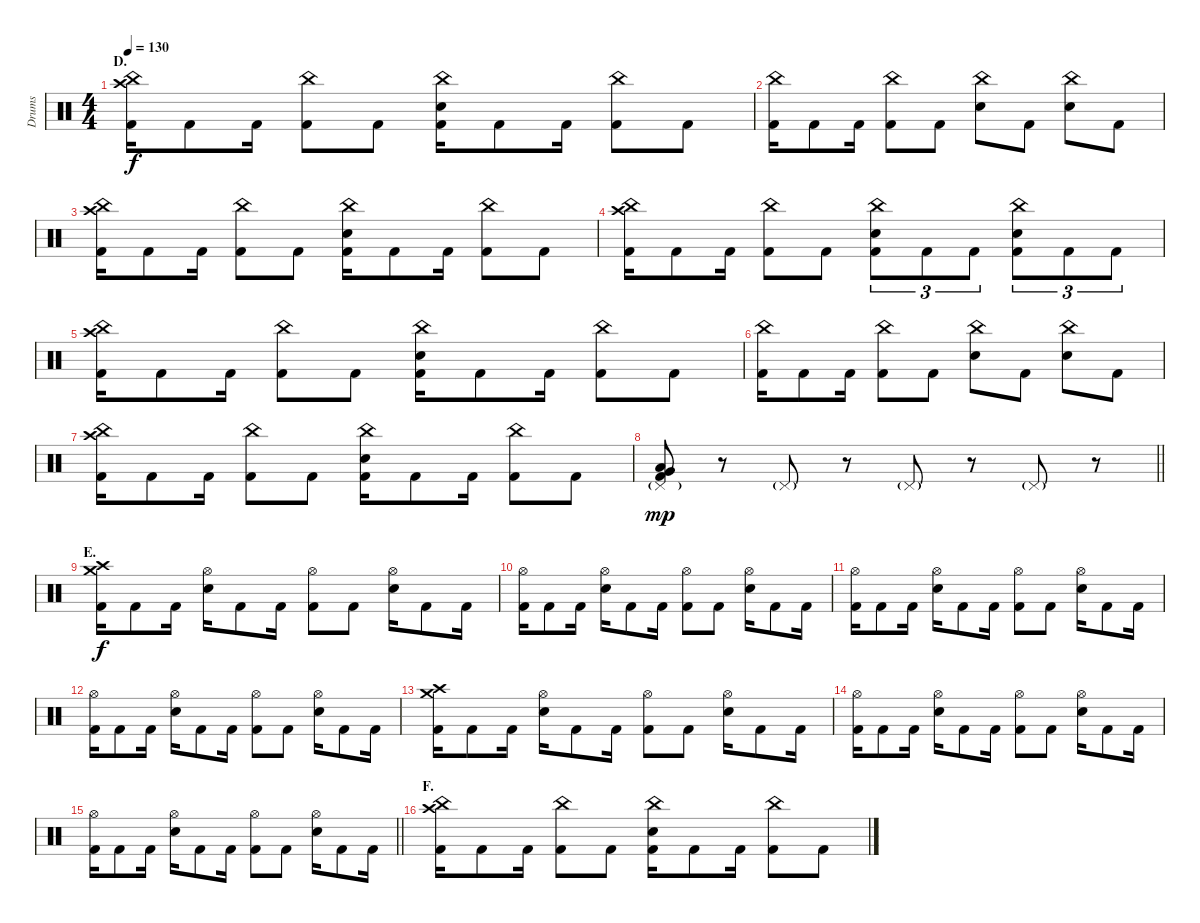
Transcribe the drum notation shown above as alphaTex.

\track ("Drums" "Drums") {instrument percussion}
\staff {score}
\articulation defaults
\ts (4 4)
\section ("" "D.")
\tempo 130
\clef neutral
\ks c
("China (hit)" "Crash high (hit)" "Kick (hit) 2").16{dy f} "Kick (hit) 2".8 "Kick (hit) 2".16 ("China (hit)" "Kick (hit) 2").8 "Kick (hit) 2".8 ("China (hit)" "Electric Snare (hit)" "Kick (hit) 2").16 "Kick (hit) 2".8 "Kick (hit) 2".16 ("China (hit)" "Kick (hit) 2").8 "Kick (hit) 2".8 |
("China (hit)" "Kick (hit) 2").16 "Kick (hit) 2".8 "Kick (hit) 2".16 ("China (hit)" "Kick (hit) 2").8 "Kick (hit) 2".8 ("China (hit)" "Electric Snare (hit)").8 "Kick (hit) 2".8 ("China (hit)" "Electric Snare (hit)").8 "Kick (hit) 2".8 |
("China (hit)" "Crash high (hit)" "Kick (hit) 2").16 "Kick (hit) 2".8 "Kick (hit) 2".16 ("China (hit)" "Kick (hit) 2").8 "Kick (hit) 2".8 ("China (hit)" "Electric Snare (hit)" "Kick (hit) 2").16 "Kick (hit) 2".8 "Kick (hit) 2".16 ("China (hit)" "Kick (hit) 2").8 "Kick (hit) 2".8 |
("China (hit)" "Crash high (hit)" "Kick (hit) 2").16 "Kick (hit) 2".8 "Kick (hit) 2".16 ("China (hit)" "Kick (hit) 2").8 "Kick (hit) 2".8 ("China (hit)" "Electric Snare (hit)" "Kick (hit) 2").8{tu (3 2)} "Kick (hit) 2".8{tu (3 2)} "Kick (hit) 2".8{tu (3 2)} ("China (hit)" "Electric Snare (hit)" "Kick (hit) 2").8{tu (3 2)} "Kick (hit) 2".8{tu (3 2)} "Kick (hit) 2".8{tu (3 2)} |
("China (hit)" "Crash high (hit)" "Kick (hit) 2").16 "Kick (hit) 2".8 "Kick (hit) 2".16 ("China (hit)" "Kick (hit) 2").8 "Kick (hit) 2".8 ("China (hit)" "Electric Snare (hit)" "Kick (hit) 2").16 "Kick (hit) 2".8 "Kick (hit) 2".16 ("China (hit)" "Kick (hit) 2").8 "Kick (hit) 2".8 |
("China (hit)" "Kick (hit) 2").16 "Kick (hit) 2".8 "Kick (hit) 2".16 ("China (hit)" "Kick (hit) 2").8 "Kick (hit) 2".8 ("China (hit)" "Electric Snare (hit)").8 "Kick (hit) 2".8 ("China (hit)" "Electric Snare (hit)").8 "Kick (hit) 2".8 |
("China (hit)" "Crash high (hit)" "Kick (hit) 2").16 "Kick (hit) 2".8 "Kick (hit) 2".16 ("China (hit)" "Kick (hit) 2").8 "Kick (hit) 2".8 ("China (hit)" "Electric Snare (hit)" "Kick (hit) 2").16 "Kick (hit) 2".8 "Kick (hit) 2".16 ("China (hit)" "Kick (hit) 2").8 "Kick (hit) 2".8 |
\barLineRight lightlight
("Pedal Hi-Hat (hit)"{g} "Very Low Tom (hit)" "Low Floor Tom (hit)" "Kick (hit) 2").8{dy mp} r.8 "Pedal Hi-Hat (hit)"{g}.8 r.8 "Pedal Hi-Hat (hit)"{g}.8 r.8 "Pedal Hi-Hat (hit)"{g}.8 r.8 |
\section ("" "E.")
("Crash medium (hit)" "Crash high (hit)" "Kick (hit) 2").16{dy f} "Kick (hit) 2".8 "Kick (hit) 2".16 ("Hi-Hat (open)" "Electric Snare (hit)").16 "Kick (hit) 2".8 "Kick (hit) 2".16 ("Hi-Hat (open)" "Kick (hit) 2").8 "Kick (hit) 2".8 ("Hi-Hat (open)" "Electric Snare (hit)").16 "Kick (hit) 2".8 "Kick (hit) 2".16 |
("Hi-Hat (open)" "Kick (hit) 2").16 "Kick (hit) 2".8 "Kick (hit) 2".16 ("Hi-Hat (open)" "Electric Snare (hit)").16 "Kick (hit) 2".8 "Kick (hit) 2".16 ("Hi-Hat (open)" "Kick (hit) 2").8 "Kick (hit) 2".8 ("Hi-Hat (open)" "Electric Snare (hit)").16 "Kick (hit) 2".8 "Kick (hit) 2".16 |
("Hi-Hat (open)" "Kick (hit) 2").16 "Kick (hit) 2".8 "Kick (hit) 2".16 ("Hi-Hat (open)" "Electric Snare (hit)").16 "Kick (hit) 2".8 "Kick (hit) 2".16 ("Hi-Hat (open)" "Kick (hit) 2").8 "Kick (hit) 2".8 ("Hi-Hat (open)" "Electric Snare (hit)").16 "Kick (hit) 2".8 "Kick (hit) 2".16 |
("Hi-Hat (open)" "Kick (hit) 2").16 "Kick (hit) 2".8 "Kick (hit) 2".16 ("Hi-Hat (open)" "Electric Snare (hit)").16 "Kick (hit) 2".8 "Kick (hit) 2".16 ("Hi-Hat (open)" "Kick (hit) 2").8 "Kick (hit) 2".8 ("Hi-Hat (open)" "Electric Snare (hit)").16 "Kick (hit) 2".8 "Kick (hit) 2".16 |
("Crash medium (hit)" "Crash high (hit)" "Kick (hit) 2").16 "Kick (hit) 2".8 "Kick (hit) 2".16 ("Hi-Hat (open)" "Electric Snare (hit)").16 "Kick (hit) 2".8 "Kick (hit) 2".16 ("Hi-Hat (open)" "Kick (hit) 2").8 "Kick (hit) 2".8 ("Hi-Hat (open)" "Electric Snare (hit)").16 "Kick (hit) 2".8 "Kick (hit) 2".16 |
("Hi-Hat (open)" "Kick (hit) 2").16 "Kick (hit) 2".8 "Kick (hit) 2".16 ("Hi-Hat (open)" "Electric Snare (hit)").16 "Kick (hit) 2".8 "Kick (hit) 2".16 ("Hi-Hat (open)" "Kick (hit) 2").8 "Kick (hit) 2".8 ("Hi-Hat (open)" "Electric Snare (hit)").16 "Kick (hit) 2".8 "Kick (hit) 2".16 |
\barLineRight lightlight
("Hi-Hat (open)" "Kick (hit) 2").16 "Kick (hit) 2".8 "Kick (hit) 2".16 ("Hi-Hat (open)" "Electric Snare (hit)").16 "Kick (hit) 2".8 "Kick (hit) 2".16 ("Hi-Hat (open)" "Kick (hit) 2").8 "Kick (hit) 2".8 ("Hi-Hat (open)" "Electric Snare (hit)").16 "Kick (hit) 2".8 "Kick (hit) 2".16 |
\section ("" "F.")
("China (hit)" "Crash high (hit)" "Kick (hit) 2").16 "Kick (hit) 2".8 "Kick (hit) 2".16 ("China (hit)" "Kick (hit) 2").8 "Kick (hit) 2".8 ("China (hit)" "Electric Snare (hit)" "Kick (hit) 2").16 "Kick (hit) 2".8 "Kick (hit) 2".16 ("China (hit)" "Kick (hit) 2").8 "Kick (hit) 2".8
